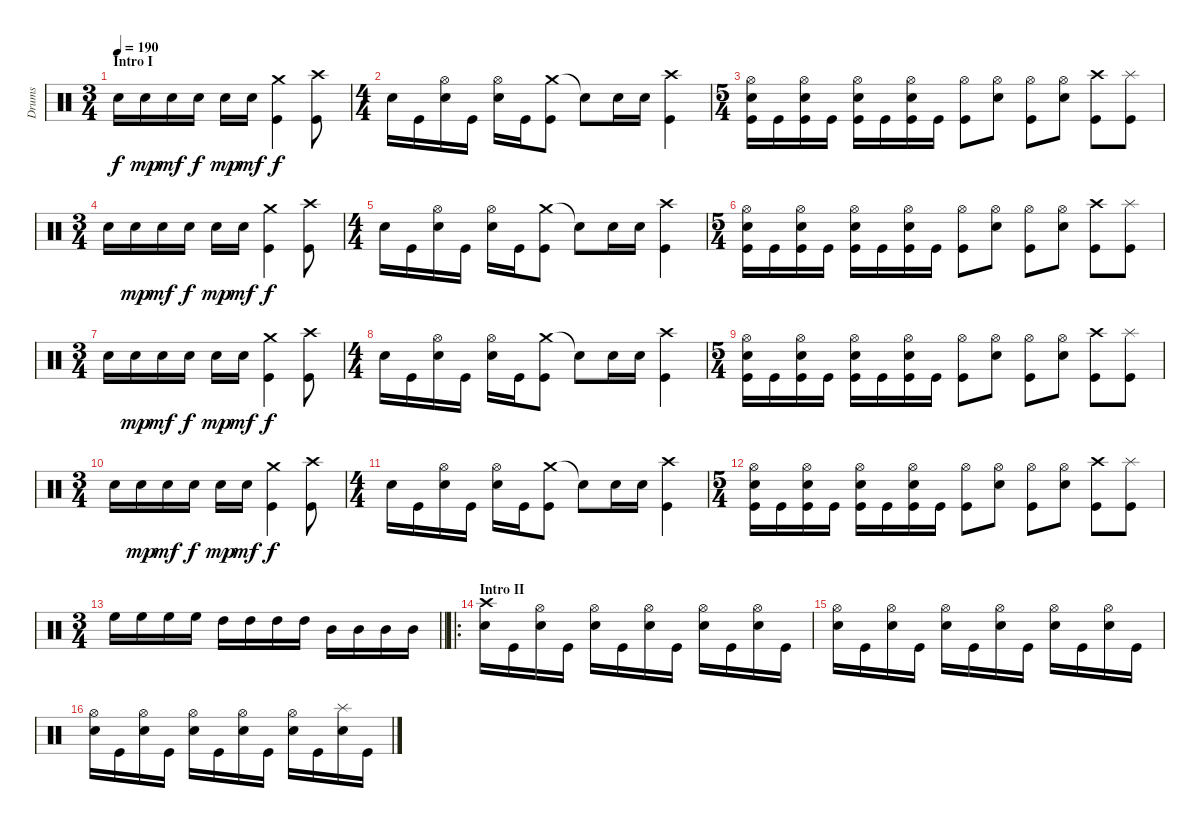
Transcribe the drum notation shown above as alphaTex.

\track ("Drums" "Drums") {instrument percussion}
\staff {score}
\articulation defaults
\ts (3 4)
\section ("" "Intro I")
\tempo 190
\clef neutral
\ks c "Electric Snare (hit)".16{dy f} "Snare (hit) 2".16{dy mp} "Snare (hit) 2".16{dy mf} "Snare (hit) 2".16{dy f} "Snare (hit) 2".16{dy mp} "Snare (hit) 2".16{dy mf}
("Crash medium (hit)" "Kick (hit)").4{dy f} ("Crash high (hit)" "Kick (hit)").8 |
\ts (4 4)
"Snare (hit) 2".16 "Kick (hit)".16 ("Hi-Hat (open)" "Snare (hit) 2").16 "Kick (hit)".16 ("Hi-Hat (open)" "Snare (hit) 2").16 "Kick (hit)".16 ("Crash medium (hit)" "Kick (hit)").8 "Snare (hit)"{t}.8 "Electric Snare (hit)".16 "Electric Snare (hit)".16 ("Crash high (hit)" "Kick (hit)").4 |
\ts (5 4)
("Hi-Hat (open)" "Snare (hit) 2" "Kick (hit)").16 "Kick (hit)".16 ("Hi-Hat (open)" "Snare (hit) 2" "Kick (hit)").16 "Kick (hit)".16 ("Hi-Hat (open)" "Snare (hit) 2" "Kick (hit)").16 "Kick (hit)".16 ("Hi-Hat (open)" "Snare (hit) 2" "Kick (hit)").16 "Kick (hit)".16 ("Hi-Hat (open)" "Kick (hit)").8 ("Hi-Hat (open)" "Electric Snare (hit)").8 ("Hi-Hat (open)" "Kick (hit)").8 ("Hi-Hat (open)" "Electric Snare (hit)").8 ("Crash high (hit)" "Kick (hit)").8 ("Splash (hit)" "Kick (hit)").8 |
\ts (3 4)
"Electric Snare (hit)".16 "Snare (hit) 2".16{dy mp} "Snare (hit) 2".16{dy mf} "Snare (hit) 2".16{dy f} "Snare (hit) 2".16{dy mp} "Snare (hit) 2".16{dy mf} ("Crash medium (hit)" "Kick (hit)").4{dy f} ("Crash high (hit)" "Kick (hit)").8 |
\ts (4 4)
"Snare (hit) 2".16 "Kick (hit)".16 ("Hi-Hat (open)" "Snare (hit) 2").16 "Kick (hit)".16 ("Hi-Hat (open)" "Snare (hit) 2").16 "Kick (hit)".16 ("Crash medium (hit)" "Kick (hit)").8 "Snare (hit)"{t}.8 "Electric Snare (hit)".16 "Electric Snare (hit)".16 ("Crash high (hit)" "Kick (hit)").4 |
\ts (5 4)
("Hi-Hat (open)" "Snare (hit) 2" "Kick (hit)").16 "Kick (hit)".16 ("Hi-Hat (open)" "Snare (hit) 2" "Kick (hit)").16 "Kick (hit)".16 ("Hi-Hat (open)" "Snare (hit) 2" "Kick (hit)").16 "Kick (hit)".16 ("Hi-Hat (open)" "Snare (hit) 2" "Kick (hit)").16 "Kick (hit)".16 ("Hi-Hat (open)" "Kick (hit)").8 ("Hi-Hat (open)" "Electric Snare (hit)").8 ("Hi-Hat (open)" "Kick (hit)").8 ("Hi-Hat (open)" "Electric Snare (hit)").8 ("Crash high (hit)" "Kick (hit)").8 ("Splash (hit)" "Kick (hit)").8 |
\ts (3 4)
"Electric Snare (hit)".16 "Snare (hit) 2".16{dy mp} "Snare (hit) 2".16{dy mf} "Snare (hit) 2".16{dy f} "Snare (hit) 2".16{dy mp} "Snare (hit) 2".16{dy mf} ("Crash medium (hit)" "Kick (hit)").4{dy f} ("Crash high (hit)" "Kick (hit)").8 |
\ts (4 4)
"Snare (hit) 2".16 "Kick (hit)".16 ("Hi-Hat (open)" "Snare (hit) 2").16 "Kick (hit)".16 ("Hi-Hat (open)" "Snare (hit) 2").16 "Kick (hit)".16 ("Crash medium (hit)" "Kick (hit)").8 "Snare (hit)"{t}.8 "Electric Snare (hit)".16 "Electric Snare (hit)".16 ("Crash high (hit)" "Kick (hit)").4 |
\ts (5 4)
("Hi-Hat (open)" "Snare (hit) 2" "Kick (hit)").16 "Kick (hit)".16 ("Hi-Hat (open)" "Snare (hit) 2" "Kick (hit)").16 "Kick (hit)".16 ("Hi-Hat (open)" "Snare (hit) 2" "Kick (hit)").16 "Kick (hit)".16 ("Hi-Hat (open)" "Snare (hit) 2" "Kick (hit)").16 "Kick (hit)".16 ("Hi-Hat (open)" "Kick (hit)").8 ("Hi-Hat (open)" "Electric Snare (hit)").8 ("Hi-Hat (open)" "Kick (hit)").8 ("Hi-Hat (open)" "Electric Snare (hit)").8 ("Crash high (hit)" "Kick (hit)").8 ("Splash (hit)" "Kick (hit)").8 |
\ts (3 4)
"Electric Snare (hit)".16 "Snare (hit) 2".16{dy mp} "Snare (hit) 2".16{dy mf} "Snare (hit) 2".16{dy f} "Snare (hit) 2".16{dy mp} "Snare (hit) 2".16{dy mf} ("Crash medium (hit)" "Kick (hit)").4{dy f} ("Crash high (hit)" "Kick (hit)").8 |
\ts (4 4)
"Snare (hit) 2".16 "Kick (hit)".16 ("Hi-Hat (open)" "Snare (hit) 2").16 "Kick (hit)".16 ("Hi-Hat (open)" "Snare (hit) 2").16 "Kick (hit)".16 ("Crash medium (hit)" "Kick (hit)").8 "Snare (hit)"{t}.8 "Electric Snare (hit)".16 "Electric Snare (hit)".16 ("Crash high (hit)" "Kick (hit)").4 |
\ts (5 4)
("Hi-Hat (open)" "Snare (hit) 2" "Kick (hit)").16 "Kick (hit)".16 ("Hi-Hat (open)" "Snare (hit) 2" "Kick (hit)").16 "Kick (hit)".16 ("Hi-Hat (open)" "Snare (hit) 2" "Kick (hit)").16 "Kick (hit)".16 ("Hi-Hat (open)" "Snare (hit) 2" "Kick (hit)").16 "Kick (hit)".16 ("Hi-Hat (open)" "Kick (hit)").8 ("Hi-Hat (open)" "Electric Snare (hit)").8 ("Hi-Hat (open)" "Kick (hit)").8 ("Hi-Hat (open)" "Electric Snare (hit)").8 ("Crash high (hit)" "Kick (hit)").8 ("Splash (hit)" "Kick (hit)").8 |
\ts (3 4)
\barLineRight lightlight "High Floor Tom (hit)".16 "High Floor Tom (hit)".16 "High Floor Tom (hit)".16 "High Floor Tom (hit)".16 "High Tom (hit)".16 "High Tom (hit)".16 "High Tom (hit)".16 "High Tom (hit)".16 "Mid Tom (hit)".16 "Mid Tom (hit)".16 "Mid Tom (hit)".16 "Mid Tom (hit)".16
|
\ro
\section ("" "Intro II")
("Crash high (hit)" "Snare (hit) 2").16 "Kick (hit)".16 ("Hi-Hat (open)" "Snare (hit) 2").16 "Kick (hit)".16 ("Hi-Hat (open)" "Snare (hit) 2").16 "Kick (hit)".16 ("Hi-Hat (open)" "Snare (hit) 2").16 "Kick (hit)".16 ("Hi-Hat (open)" "Snare (hit) 2").16 "Kick (hit)".16 ("Hi-Hat (open)" "Snare (hit) 2").16 "Kick (hit)".16 |
("Hi-Hat (open)" "Snare (hit) 2").16 "Kick (hit)".16 ("Hi-Hat (open)" "Snare (hit) 2").16 "Kick (hit)".16 ("Hi-Hat (open)" "Snare (hit) 2").16 "Kick (hit)".16 ("Hi-Hat (open)" "Snare (hit) 2").16 "Kick (hit)".16 ("Hi-Hat (open)" "Snare (hit) 2").16 "Kick (hit)".16 ("Hi-Hat (open)" "Snare (hit) 2").16 "Kick (hit)".16 |
("Hi-Hat (open)" "Snare (hit) 2").16 "Kick (hit)".16 ("Hi-Hat (open)" "Snare (hit) 2").16 "Kick (hit)".16 ("Hi-Hat (open)" "Snare (hit) 2").16 "Kick (hit)".16 ("Hi-Hat (open)" "Snare (hit) 2").16 "Kick (hit)".16 ("Hi-Hat (open)" "Snare (hit) 2").16 "Kick (hit)".16 ("Splash (hit)" "Snare (hit) 2").16 "Kick (hit)".16
